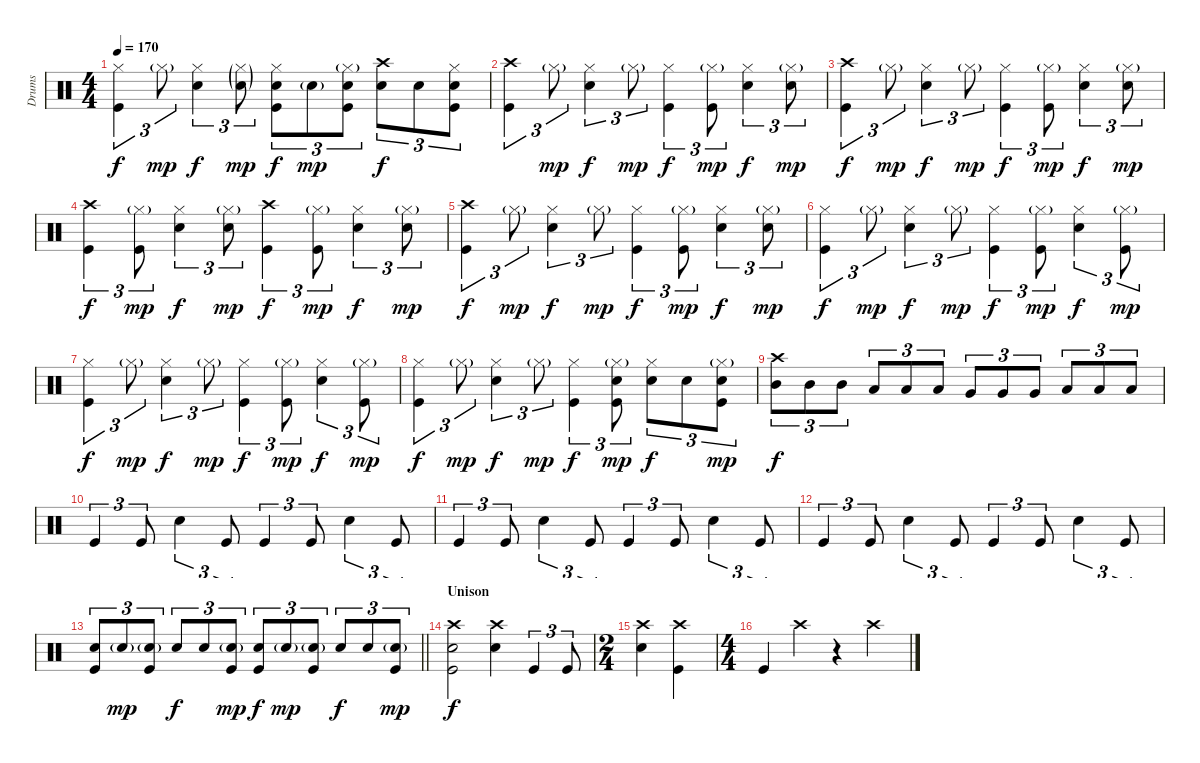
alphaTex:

\track ("Drums" "Drums") {instrument percussion}
\staff {score}
\articulation defaults
\ts (4 4)
\tempo 170
\clef neutral
\ks c
("Hi-Hat (closed)" "Kick (hit)").4{tu (3 2) dy f} "Hi-Hat (closed)"{g}.8{tu (3 2) dy mp} ("Hi-Hat (closed)" "Snare (hit) 2").4{tu (3 2) dy f} ("Hi-Hat (closed)"{g} "Snare (hit) 2"{g}).8{tu (3 2) dy mp} ("Hi-Hat (closed)" "Snare (hit) 2" "Kick (hit)").8{tu (3 2) dy f} "Snare (hit) 2"{g}.8{tu (3 2) dy mp} ("Hi-Hat (closed)"{g} "Snare (hit) 2" "Kick (hit)").8{tu (3 2)} ("Crash high (hit)" "Snare (hit) 2").8{tu (3 2) dy f} "Snare (hit) 2".8{tu (3 2)} ("Hi-Hat (closed)" "Snare (hit) 2" "Kick (hit)").8{tu (3 2)} |
("Crash high (hit)" "Kick (hit)").4{tu (3 2)} "Hi-Hat (closed)"{g}.8{tu (3 2) dy mp} ("Hi-Hat (closed)" "Snare (hit) 2").4{tu (3 2) dy f} "Hi-Hat (closed)"{g}.8{tu (3 2) dy mp} ("Hi-Hat (closed)" "Kick (hit)").4{tu (3 2) dy f} ("Hi-Hat (closed)"{g} "Kick (hit)").8{tu (3 2) dy mp} ("Hi-Hat (closed)" "Snare (hit) 2").4{tu (3 2) dy f} ("Hi-Hat (closed)"{g} "Snare (hit) 2").8{tu (3 2) dy mp} |
("Crash high (hit)" "Kick (hit)").4{tu (3 2) dy f} "Hi-Hat (closed)"{g}.8{tu (3 2) dy mp} ("Hi-Hat (closed)" "Snare (hit) 2").4{tu (3 2) dy f} "Hi-Hat (closed)"{g}.8{tu (3 2) dy mp} ("Hi-Hat (closed)" "Kick (hit)").4{tu (3 2) dy f} ("Hi-Hat (closed)"{g} "Kick (hit)").8{tu (3 2) dy mp} ("Hi-Hat (closed)" "Snare (hit) 2").4{tu (3 2) dy f} ("Hi-Hat (closed)"{g} "Snare (hit) 2").8{tu (3 2) dy mp} |
("Crash high (hit)" "Kick (hit)").4{tu (3 2) dy f} ("Hi-Hat (closed)"{g} "Kick (hit)").8{tu (3 2) dy mp} ("Hi-Hat (closed)" "Snare (hit) 2").4{tu (3 2) dy f} ("Hi-Hat (closed)"{g} "Snare (hit) 2").8{tu (3 2) dy mp} ("Crash high (hit)" "Kick (hit)").4{tu (3 2) dy f} ("Hi-Hat (closed)"{g} "Kick (hit)").8{tu (3 2) dy mp} ("Hi-Hat (closed)" "Snare (hit) 2").4{tu (3 2) dy f} ("Hi-Hat (closed)"{g} "Snare (hit) 2").8{tu (3 2) dy mp} |
("Crash high (hit)" "Kick (hit)").4{tu (3 2) dy f} "Hi-Hat (closed)"{g}.8{tu (3 2) dy mp} ("Hi-Hat (closed)" "Snare (hit) 2").4{tu (3 2) dy f} "Hi-Hat (closed)"{g}.8{tu (3 2) dy mp} ("Hi-Hat (closed)" "Kick (hit)").4{tu (3 2) dy f} ("Hi-Hat (closed)"{g} "Kick (hit)").8{tu (3 2) dy mp} ("Hi-Hat (closed)" "Snare (hit) 2").4{tu (3 2) dy f} ("Hi-Hat (closed)"{g} "Snare (hit) 2").8{tu (3 2) dy mp} |
("Hi-Hat (closed)" "Kick (hit)").4{tu (3 2) dy f} "Hi-Hat (closed)"{g}.8{tu (3 2) dy mp} ("Hi-Hat (closed)" "Snare (hit) 2").4{tu (3 2) dy f} "Hi-Hat (closed)"{g}.8{tu (3 2) dy mp} ("Hi-Hat (closed)" "Kick (hit)").4{tu (3 2) dy f} ("Hi-Hat (closed)"{g} "Kick (hit)").8{tu (3 2) dy mp} ("Hi-Hat (closed)" "Snare (hit) 2").4{tu (3 2) dy f} ("Hi-Hat (closed)"{g} "Kick (hit)").8{tu (3 2) dy mp} |
("Hi-Hat (closed)" "Kick (hit)").4{tu (3 2) dy f} "Hi-Hat (closed)"{g}.8{tu (3 2) dy mp} ("Hi-Hat (closed)" "Snare (hit) 2").4{tu (3 2) dy f} "Hi-Hat (closed)"{g}.8{tu (3 2) dy mp} ("Hi-Hat (closed)" "Kick (hit)").4{tu (3 2) dy f} ("Hi-Hat (closed)"{g} "Kick (hit)").8{tu (3 2) dy mp} ("Hi-Hat (closed)" "Snare (hit) 2").4{tu (3 2) dy f} ("Hi-Hat (closed)"{g} "Kick (hit)").8{tu (3 2) dy mp} |
("Hi-Hat (closed)" "Kick (hit)").4{tu (3 2) dy f} "Hi-Hat (closed)"{g}.8{tu (3 2) dy mp} ("Hi-Hat (closed)" "Snare (hit) 2").4{tu (3 2) dy f} "Hi-Hat (closed)"{g}.8{tu (3 2) dy mp} ("Hi-Hat (closed)" "Kick (hit)").4{tu (3 2) dy f} ("Hi-Hat (closed)"{g} "Snare (hit) 2" "Kick (hit)").8{tu (3 2) dy mp} ("Hi-Hat (closed)" "Snare (hit) 2").8{tu (3 2) dy f} "Snare (hit) 2".8{tu (3 2)} ("Hi-Hat (closed)"{g} "Snare (hit) 2" "Kick (hit)").8{tu (3 2) dy mp} |
("Crash high (hit)" "Mid Tom (hit)").8{tu (3 2) dy f} "Mid Tom (hit)".8{tu (3 2)} "Mid Tom (hit)".8{tu (3 2)} "Low Tom (hit)".8{tu (3 2)} "Low Tom (hit)".8{tu (3 2)} "Low Tom (hit)".8{tu (3 2)} "Very Low Tom (hit)".8{tu (3 2)} "Very Low Tom (hit)".8{tu (3 2)} "Very Low Tom (hit)".8{tu (3 2)} "Low Floor Tom (hit)".8{tu (3 2)} "Low Floor Tom (hit)".8{tu (3 2)} "Low Floor Tom (hit)".8{tu (3 2)} |
"Kick (hit)".4{tu (3 2)} "Kick (hit)".8{tu (3 2)} "Snare (hit) 2".4{tu (3 2)} "Kick (hit)".8{tu (3 2)} "Kick (hit)".4{tu (3 2)} "Kick (hit)".8{tu (3 2)} "Snare (hit) 2".4{tu (3 2)} "Kick (hit)".8{tu (3 2)} |
"Kick (hit)".4{tu (3 2)} "Kick (hit)".8{tu (3 2)} "Snare (hit) 2".4{tu (3 2)} "Kick (hit)".8{tu (3 2)} "Kick (hit)".4{tu (3 2)} "Kick (hit)".8{tu (3 2)} "Snare (hit) 2".4{tu (3 2)} "Kick (hit)".8{tu (3 2)} |
"Kick (hit)".4{tu (3 2)} "Kick (hit)".8{tu (3 2)} "Snare (hit) 2".4{tu (3 2)} "Kick (hit)".8{tu (3 2)} "Kick (hit)".4{tu (3 2)} "Kick (hit)".8{tu (3 2)} "Snare (hit) 2".4{tu (3 2)} "Kick (hit)".8{tu (3 2)} |
\barLineRight lightlight
("Snare (hit) 2" "Kick (hit)").8{tu (3 2)} "Snare (hit) 2"{g}.8{tu (3 2) dy mp} ("Snare (hit) 2"{g} "Kick (hit)").8{tu (3 2)} "Snare (hit) 2".8{tu (3 2) dy f} "Snare (hit) 2".8{tu (3 2)} ("Snare (hit) 2"{g} "Kick (hit)").8{tu (3 2) dy mp} ("Snare (hit) 2" "Kick (hit)").8{tu (3 2) dy f} "Snare (hit) 2"{g}.8{tu (3 2) dy mp} ("Snare (hit) 2"{g} "Kick (hit)").8{tu (3 2)} "Snare (hit) 2".8{tu (3 2) dy f} "Snare (hit) 2".8{tu (3 2)} ("Snare (hit) 2"{g} "Kick (hit)").8{tu (3 2) dy mp} |
\section ("" "Unison")
("Crash high (hit)" "Snare (hit) 2" "Kick (hit)").2{dy f} ("Crash high (hit)" "Snare (hit) 2").4 "Kick (hit)".4{tu (3 2)} "Kick (hit)".8{tu (3 2)} |
\ts (2 4)
("Crash high (hit)" "Snare (hit) 2").4 ("Crash high (hit)" "Kick (hit)").4 |
\ts (4 4)
"Kick (hit)".4 "Crash high (hit)".4 r.4 "Crash high (hit)".4
